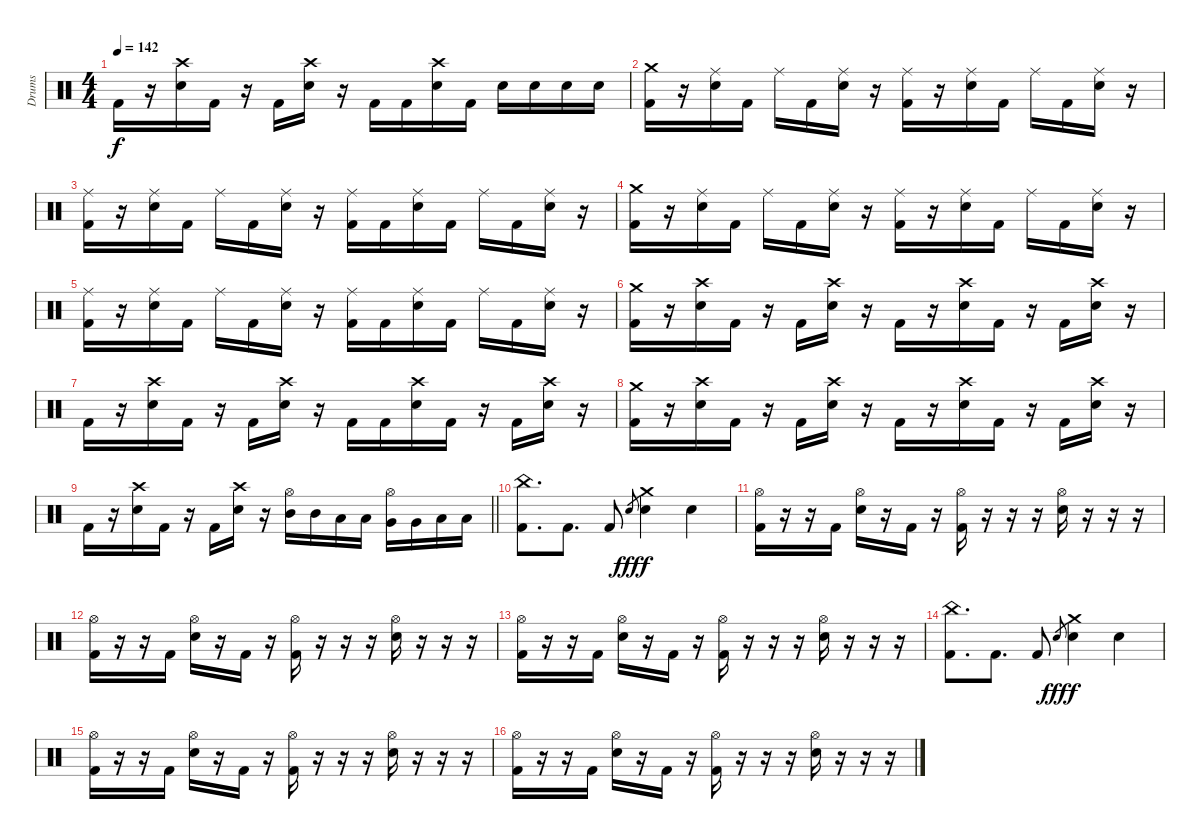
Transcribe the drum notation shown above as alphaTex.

\track ("Drums" "Drums") {instrument percussion}
\staff
\articulation defaults
\ts (4 4)
\tempo 142
\clef neutral
\ks c "Kick (hit) 2".16{dy f}
r.16 ("Crash high (hit)" "Snare (hit) 2").16 "Kick (hit) 2".16 r.16 "Kick (hit) 2".16 ("Crash high (hit)" "Snare (hit) 2").16 r.16 "Kick (hit) 2".16 "Kick (hit) 2".16 ("Crash high (hit)" "Snare (hit) 2").16 "Kick (hit) 2".16 "Snare (hit) 2".16 "Snare (hit) 2".16 "Snare (hit) 2".16 "Snare (hit) 2".16 |
("Crash medium (hit)" "Kick (hit) 2").16 r.16 ("Ride (middle)" "Snare (hit) 2").16 "Kick (hit) 2".16 "Ride (middle)".16 "Kick (hit) 2".16 ("Ride (middle)" "Snare (hit) 2").16 r.16 ("Ride (middle)" "Kick (hit) 2").16 r.16 ("Ride (middle)" "Snare (hit) 2").16 "Kick (hit) 2".16 "Ride (middle)".16 "Kick (hit) 2".16 ("Ride (middle)" "Snare (hit) 2").16 r.16 |
("Ride (middle)" "Kick (hit) 2").16 r.16 ("Ride (middle)" "Snare (hit) 2").16 "Kick (hit) 2".16 "Ride (middle)".16 "Kick (hit) 2".16 ("Ride (middle)" "Snare (hit) 2").16 r.16 ("Ride (middle)" "Kick (hit) 2").16 "Kick (hit) 2".16 ("Ride (middle)" "Snare (hit) 2").16 "Kick (hit) 2".16 "Ride (middle)".16 "Kick (hit) 2".16 ("Ride (middle)" "Snare (hit) 2").16 r.16 |
("Crash medium (hit)" "Kick (hit) 2").16 r.16 ("Ride (middle)" "Snare (hit) 2").16 "Kick (hit) 2".16 "Ride (middle)".16 "Kick (hit) 2".16 ("Ride (middle)" "Snare (hit) 2").16 r.16 ("Ride (middle)" "Kick (hit) 2").16 r.16 ("Ride (middle)" "Snare (hit) 2").16 "Kick (hit) 2".16 "Ride (middle)".16 "Kick (hit) 2".16 ("Ride (middle)" "Snare (hit) 2").16 r.16 |
("Ride (middle)" "Kick (hit) 2").16 r.16 ("Ride (middle)" "Snare (hit) 2").16 "Kick (hit) 2".16 "Ride (middle)".16 "Kick (hit) 2".16 ("Ride (middle)" "Snare (hit) 2").16 r.16 ("Ride (middle)" "Kick (hit) 2").16 "Kick (hit) 2".16 ("Ride (middle)" "Snare (hit) 2").16 "Kick (hit) 2".16 "Ride (middle)".16 "Kick (hit) 2".16 ("Ride (middle)" "Snare (hit) 2").16 r.16 |
("Crash medium (hit)" "Kick (hit) 2").16 r.16 ("Crash high (hit)" "Snare (hit) 2").16 "Kick (hit) 2".16 r.16 "Kick (hit) 2".16 ("Crash high (hit)" "Snare (hit) 2").16 r.16 "Kick (hit) 2".16 r.16 ("Crash high (hit)" "Snare (hit) 2").16 "Kick (hit) 2".16 r.16 "Kick (hit) 2".16 ("Crash high (hit)" "Snare (hit) 2").16 r.16 |
"Kick (hit) 2".16 r.16 ("Crash high (hit)" "Snare (hit) 2").16 "Kick (hit) 2".16 r.16 "Kick (hit) 2".16 ("Crash high (hit)" "Snare (hit) 2").16 r.16 "Kick (hit) 2".16 "Kick (hit) 2".16 ("Crash high (hit)" "Snare (hit) 2").16 "Kick (hit) 2".16 r.16 "Kick (hit) 2".16 ("Crash high (hit)" "Snare (hit) 2").16 r.16 |
("Crash medium (hit)" "Kick (hit) 2").16 r.16 ("Crash high (hit)" "Snare (hit) 2").16 "Kick (hit) 2".16 r.16 "Kick (hit) 2".16 ("Crash high (hit)" "Snare (hit) 2").16 r.16 "Kick (hit) 2".16 r.16 ("Crash high (hit)" "Snare (hit) 2").16 "Kick (hit) 2".16 r.16 "Kick (hit) 2".16 ("Crash high (hit)" "Snare (hit) 2").16 r.16 |
\barLineRight lightlight "Kick (hit) 2".16
r.16 ("Crash high (hit)" "Snare (hit) 2").16 "Kick (hit) 2".16 r.16 "Kick (hit) 2".16 ("Crash high (hit)" "Snare (hit) 2").16 r.16 ("Hi-Hat (open)" "Mid Tom (hit)").16 "Mid Tom (hit)".16 "Low Tom (hit)".16 "Low Tom (hit)".16 ("Hi-Hat (open)" "Very Low Tom (hit)").16 "Very Low Tom (hit)".16 "Low Floor Tom (hit)".16 "Low Floor Tom (hit)".16 |
\section ("" "")
("China (hit)" "Kick (hit) 2").8{d} "Kick (hit) 2".8{d} "Kick (hit) 2".8 "Snare (hit) 2"{h}.8{gr dy fff} ("Crash medium (hit)" "Snare (hit) 2").4{dy f} "Snare (hit) 2".4 |
("Hi-Hat (open)" "Kick (hit) 2").16 r.16 r.16 "Kick (hit) 2".16 ("Hi-Hat (open)" "Snare (hit) 2").16 r.16 "Kick (hit) 2".16 r.16 ("Hi-Hat (open)" "Kick (hit) 2").16 r.16 r.16 r.16 ("Hi-Hat (open)" "Snare (hit) 2").16 r.16 r.16 r.16 |
("Hi-Hat (open)" "Kick (hit) 2").16 r.16 r.16 "Kick (hit) 2".16 ("Hi-Hat (open)" "Snare (hit) 2").16 r.16 "Kick (hit) 2".16 r.16 ("Hi-Hat (open)" "Kick (hit) 2").16 r.16 r.16 r.16 ("Hi-Hat (open)" "Snare (hit) 2").16 r.16 r.16 r.16 |
("Hi-Hat (open)" "Kick (hit) 2").16 r.16 r.16 "Kick (hit) 2".16 ("Hi-Hat (open)" "Snare (hit) 2").16 r.16 "Kick (hit) 2".16 r.16 ("Hi-Hat (open)" "Kick (hit) 2").16 r.16 r.16 r.16 ("Hi-Hat (open)" "Snare (hit) 2").16 r.16 r.16 r.16 |
("China (hit)" "Kick (hit) 2").8{d} "Kick (hit) 2".8{d} "Kick (hit) 2".8 "Snare (hit) 2"{h}.8{gr dy fff} ("Crash medium (hit)" "Snare (hit) 2").4{dy f} "Snare (hit) 2".4 |
("Hi-Hat (open)" "Kick (hit) 2").16 r.16 r.16 "Kick (hit) 2".16 ("Hi-Hat (open)" "Snare (hit) 2").16 r.16 "Kick (hit) 2".16 r.16 ("Hi-Hat (open)" "Kick (hit) 2").16 r.16 r.16 r.16 ("Hi-Hat (open)" "Snare (hit) 2").16 r.16 r.16 r.16 |
("Hi-Hat (open)" "Kick (hit) 2").16 r.16 r.16 "Kick (hit) 2".16 ("Hi-Hat (open)" "Snare (hit) 2").16 r.16 "Kick (hit) 2".16 r.16 ("Hi-Hat (open)" "Kick (hit) 2").16 r.16 r.16 r.16 ("Hi-Hat (open)" "Snare (hit) 2").16 r.16 r.16 r.16
